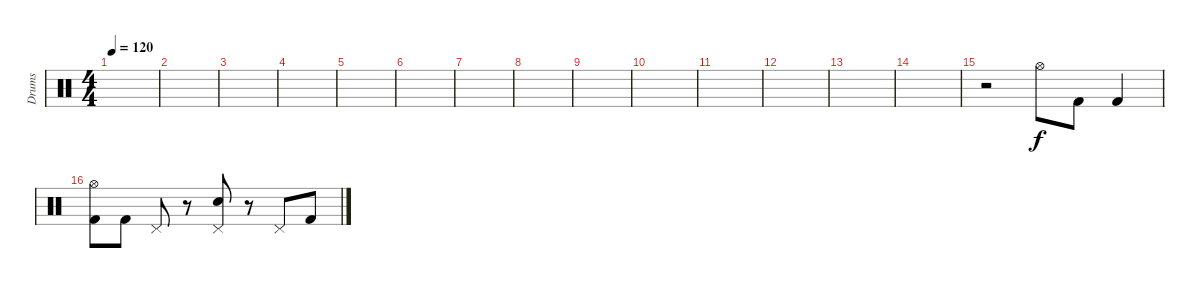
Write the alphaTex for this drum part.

\track ("Drums" "Drums") {instrument percussion}
\staff {score}
\articulation defaults
\ts (4 4)
\tempo 120
\clef neutral
\ks c
|
|
|
|
|
|
|
|
|
|
|
|
|
|
r.2 "Hi-Hat (open)".8 "Kick (hit) 2".8 "Kick (hit) 2".4 |
("Hi-Hat (open)" "Kick (hit) 2").8{dy f} "Kick (hit) 2".8 "Pedal Hi-Hat (hit)".8 r.8 ("Pedal Hi-Hat (hit)" "Snare (hit) 2").8 r.8 "Pedal Hi-Hat (hit)".8 "Kick (hit) 2".8
